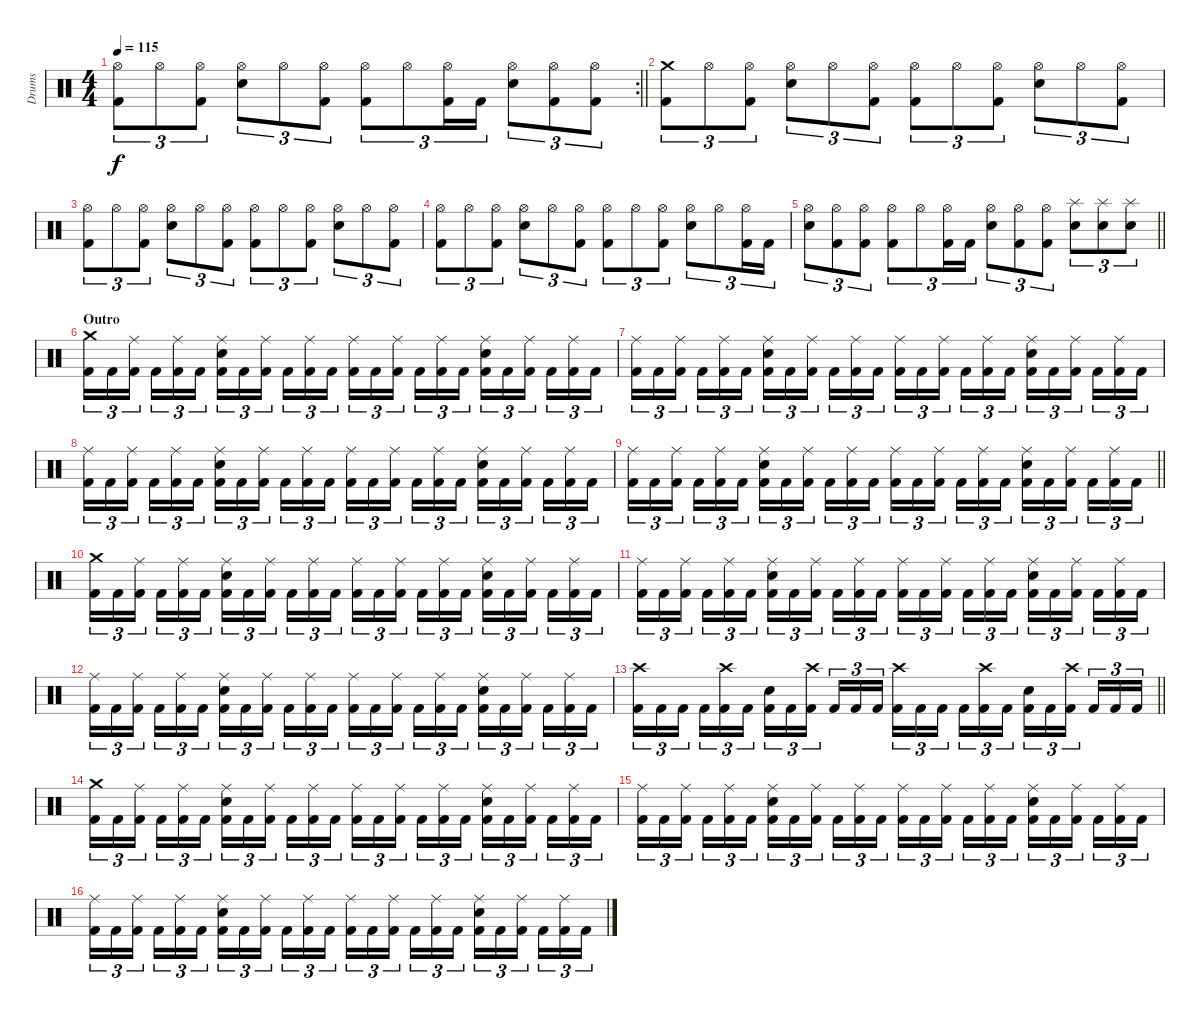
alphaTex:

\track ("Drums" "Drums") {instrument percussion}
\staff {score}
\articulation defaults
\rc 2
\ts (4 4)
\tempo 115
\clef neutral
\barLineRight lightlight
\ks c
("Kick (hit) 2" "Hi-Hat (open)").8{tu (3 2) dy f} "Hi-Hat (open)".8{tu (3 2)} ("Kick (hit) 2" "Hi-Hat (open)").8{tu (3 2)} ("Electric Snare (hit)" "Hi-Hat (open)").8{tu (3 2)} "Hi-Hat (open)".8{tu (3 2)} ("Kick (hit) 2" "Hi-Hat (open)").8{tu (3 2)} ("Kick (hit) 2" "Hi-Hat (open)").8{tu (3 2)} "Hi-Hat (open)".8{tu (3 2)} ("Kick (hit) 2" "Hi-Hat (open)").16{tu (3 2)} "Kick (hit) 2".16{tu (3 2)} ("Electric Snare (hit)" "Hi-Hat (open)").8{tu (3 2)} ("Kick (hit) 2" "Hi-Hat (open)").8{tu (3 2)} ("Kick (hit) 2" "Hi-Hat (open)").8{tu (3 2)} |
("Kick (hit) 2" "Crash medium (hit)").8{tu (3 2)} "Hi-Hat (open)".8{tu (3 2)} ("Kick (hit) 2" "Hi-Hat (open)").8{tu (3 2)} ("Electric Snare (hit)" "Hi-Hat (open)").8{tu (3 2)} "Hi-Hat (open)".8{tu (3 2)} ("Kick (hit) 2" "Hi-Hat (open)").8{tu (3 2)} ("Kick (hit) 2" "Hi-Hat (open)").8{tu (3 2)} "Hi-Hat (open)".8{tu (3 2)} ("Kick (hit) 2" "Hi-Hat (open)").8{tu (3 2)} ("Electric Snare (hit)" "Hi-Hat (open)").8{tu (3 2)} "Hi-Hat (open)".8{tu (3 2)} ("Kick (hit) 2" "Hi-Hat (open)").8{tu (3 2)} |
("Kick (hit) 2" "Hi-Hat (open)").8{tu (3 2)} "Hi-Hat (open)".8{tu (3 2)} ("Kick (hit) 2" "Hi-Hat (open)").8{tu (3 2)} ("Electric Snare (hit)" "Hi-Hat (open)").8{tu (3 2)} "Hi-Hat (open)".8{tu (3 2)} ("Kick (hit) 2" "Hi-Hat (open)").8{tu (3 2)} ("Kick (hit) 2" "Hi-Hat (open)").8{tu (3 2)} "Hi-Hat (open)".8{tu (3 2)} ("Kick (hit) 2" "Hi-Hat (open)").8{tu (3 2)} ("Electric Snare (hit)" "Hi-Hat (open)").8{tu (3 2)} "Hi-Hat (open)".8{tu (3 2)} ("Kick (hit) 2" "Hi-Hat (open)").8{tu (3 2)} |
("Kick (hit) 2" "Hi-Hat (open)").8{tu (3 2)} "Hi-Hat (open)".8{tu (3 2)} ("Kick (hit) 2" "Hi-Hat (open)").8{tu (3 2)} ("Electric Snare (hit)" "Hi-Hat (open)").8{tu (3 2)} "Hi-Hat (open)".8{tu (3 2)} ("Kick (hit) 2" "Hi-Hat (open)").8{tu (3 2)} ("Kick (hit) 2" "Hi-Hat (open)").8{tu (3 2)} "Hi-Hat (open)".8{tu (3 2)} ("Kick (hit) 2" "Hi-Hat (open)").8{tu (3 2)} ("Electric Snare (hit)" "Hi-Hat (open)").8{tu (3 2)} "Hi-Hat (open)".8{tu (3 2)} ("Kick (hit) 2" "Hi-Hat (open)").16{tu (3 2)} "Kick (hit) 2".16{tu (3 2)} |
\barLineRight lightlight
("Electric Snare (hit)" "Hi-Hat (open)").8{tu (3 2)} ("Kick (hit) 2" "Hi-Hat (open)").8{tu (3 2)} ("Kick (hit) 2" "Hi-Hat (open)").8{tu (3 2)} ("Kick (hit) 2" "Hi-Hat (open)").8{tu (3 2)} "Hi-Hat (open)".8{tu (3 2)} ("Kick (hit) 2" "Hi-Hat (open)").16{tu (3 2)} "Kick (hit) 2".16{tu (3 2)} ("Electric Snare (hit)" "Hi-Hat (open)").8{tu (3 2)} ("Kick (hit) 2" "Hi-Hat (open)").8{tu (3 2)} ("Kick (hit) 2" "Hi-Hat (open)").8{tu (3 2)} ("Electric Snare (hit)" "Splash (hit)").8{tu (3 2)} ("Electric Snare (hit)" "Splash (hit)").8{tu (3 2)} ("Electric Snare (hit)" "Splash (hit)").8{tu (3 2)} |
\section ("" "Outro")
("Kick (hit) 2" "Crash medium (hit)").16{tu (3 2)} "Kick (hit) 2".16{tu (3 2)} ("Kick (hit) 2" "Ride (middle)").16{tu (3 2)} "Kick (hit) 2".16{tu (3 2)} ("Kick (hit) 2" "Ride (middle)").16{tu (3 2)} "Kick (hit) 2".16{tu (3 2)} ("Kick (hit) 2" "Electric Snare (hit)" "Ride (middle)").16{tu (3 2)} "Kick (hit) 2".16{tu (3 2)} ("Kick (hit) 2" "Ride (middle)").16{tu (3 2)} "Kick (hit) 2".16{tu (3 2)} ("Kick (hit) 2" "Ride (middle)").16{tu (3 2)} "Kick (hit) 2".16{tu (3 2)} ("Kick (hit) 2" "Ride (middle)").16{tu (3 2)} "Kick (hit) 2".16{tu (3 2)} ("Kick (hit) 2" "Ride (middle)").16{tu (3 2)} "Kick (hit) 2".16{tu (3 2)} ("Kick (hit) 2" "Ride (middle)").16{tu (3 2)} "Kick (hit) 2".16{tu (3 2)} ("Kick (hit) 2" "Electric Snare (hit)" "Ride (middle)").16{tu (3 2)} "Kick (hit) 2".16{tu (3 2)} ("Kick (hit) 2" "Ride (middle)").16{tu (3 2)} "Kick (hit) 2".16{tu (3 2)} ("Kick (hit) 2" "Ride (middle)").16{tu (3 2)} "Kick (hit) 2".16{tu (3 2)} |
("Kick (hit) 2" "Ride (middle)").16{tu (3 2)} "Kick (hit) 2".16{tu (3 2)} ("Kick (hit) 2" "Ride (middle)").16{tu (3 2)} "Kick (hit) 2".16{tu (3 2)} ("Kick (hit) 2" "Ride (middle)").16{tu (3 2)} "Kick (hit) 2".16{tu (3 2)} ("Kick (hit) 2" "Electric Snare (hit)" "Ride (middle)").16{tu (3 2)} "Kick (hit) 2".16{tu (3 2)} ("Kick (hit) 2" "Ride (middle)").16{tu (3 2)} "Kick (hit) 2".16{tu (3 2)} ("Kick (hit) 2" "Ride (middle)").16{tu (3 2)} "Kick (hit) 2".16{tu (3 2)} ("Kick (hit) 2" "Ride (middle)").16{tu (3 2)} "Kick (hit) 2".16{tu (3 2)} ("Kick (hit) 2" "Ride (middle)").16{tu (3 2)} "Kick (hit) 2".16{tu (3 2)} ("Kick (hit) 2" "Ride (middle)").16{tu (3 2)} "Kick (hit) 2".16{tu (3 2)} ("Kick (hit) 2" "Electric Snare (hit)" "Ride (middle)").16{tu (3 2)} "Kick (hit) 2".16{tu (3 2)} ("Kick (hit) 2" "Ride (middle)").16{tu (3 2)} "Kick (hit) 2".16{tu (3 2)} ("Kick (hit) 2" "Ride (middle)").16{tu (3 2)} "Kick (hit) 2".16{tu (3 2)} |
("Kick (hit) 2" "Ride (middle)").16{tu (3 2)} "Kick (hit) 2".16{tu (3 2)} ("Kick (hit) 2" "Ride (middle)").16{tu (3 2)} "Kick (hit) 2".16{tu (3 2)} ("Kick (hit) 2" "Ride (middle)").16{tu (3 2)} "Kick (hit) 2".16{tu (3 2)} ("Kick (hit) 2" "Electric Snare (hit)" "Ride (middle)").16{tu (3 2)} "Kick (hit) 2".16{tu (3 2)} ("Kick (hit) 2" "Ride (middle)").16{tu (3 2)} "Kick (hit) 2".16{tu (3 2)} ("Kick (hit) 2" "Ride (middle)").16{tu (3 2)} "Kick (hit) 2".16{tu (3 2)} ("Kick (hit) 2" "Ride (middle)").16{tu (3 2)} "Kick (hit) 2".16{tu (3 2)} ("Kick (hit) 2" "Ride (middle)").16{tu (3 2)} "Kick (hit) 2".16{tu (3 2)} ("Kick (hit) 2" "Ride (middle)").16{tu (3 2)} "Kick (hit) 2".16{tu (3 2)} ("Kick (hit) 2" "Electric Snare (hit)" "Ride (middle)").16{tu (3 2)} "Kick (hit) 2".16{tu (3 2)} ("Kick (hit) 2" "Ride (middle)").16{tu (3 2)} "Kick (hit) 2".16{tu (3 2)} ("Kick (hit) 2" "Ride (middle)").16{tu (3 2)} "Kick (hit) 2".16{tu (3 2)} |
\barLineRight lightlight
("Kick (hit) 2" "Ride (middle)").16{tu (3 2)} "Kick (hit) 2".16{tu (3 2)} ("Kick (hit) 2" "Ride (middle)").16{tu (3 2)} "Kick (hit) 2".16{tu (3 2)} ("Kick (hit) 2" "Ride (middle)").16{tu (3 2)} "Kick (hit) 2".16{tu (3 2)} ("Kick (hit) 2" "Electric Snare (hit)" "Ride (middle)").16{tu (3 2)} "Kick (hit) 2".16{tu (3 2)} ("Kick (hit) 2" "Ride (middle)").16{tu (3 2)} "Kick (hit) 2".16{tu (3 2)} ("Kick (hit) 2" "Ride (middle)").16{tu (3 2)} "Kick (hit) 2".16{tu (3 2)} ("Kick (hit) 2" "Ride (middle)").16{tu (3 2)} "Kick (hit) 2".16{tu (3 2)} ("Kick (hit) 2" "Ride (middle)").16{tu (3 2)} "Kick (hit) 2".16{tu (3 2)} ("Kick (hit) 2" "Ride (middle)").16{tu (3 2)} "Kick (hit) 2".16{tu (3 2)} ("Kick (hit) 2" "Electric Snare (hit)" "Ride (middle)").16{tu (3 2)} "Kick (hit) 2".16{tu (3 2)} ("Kick (hit) 2" "Ride (middle)").16{tu (3 2)} "Kick (hit) 2".16{tu (3 2)} ("Kick (hit) 2" "Ride (middle)").16{tu (3 2)} "Kick (hit) 2".16{tu (3 2)} |
("Kick (hit) 2" "Crash medium (hit)").16{tu (3 2)} "Kick (hit) 2".16{tu (3 2)} ("Kick (hit) 2" "Ride (middle)").16{tu (3 2)} "Kick (hit) 2".16{tu (3 2)} ("Kick (hit) 2" "Ride (middle)").16{tu (3 2)} "Kick (hit) 2".16{tu (3 2)} ("Kick (hit) 2" "Electric Snare (hit)" "Ride (middle)").16{tu (3 2)} "Kick (hit) 2".16{tu (3 2)} ("Kick (hit) 2" "Ride (middle)").16{tu (3 2)} "Kick (hit) 2".16{tu (3 2)} ("Kick (hit) 2" "Ride (middle)").16{tu (3 2)} "Kick (hit) 2".16{tu (3 2)} ("Kick (hit) 2" "Ride (middle)").16{tu (3 2)} "Kick (hit) 2".16{tu (3 2)} ("Kick (hit) 2" "Ride (middle)").16{tu (3 2)} "Kick (hit) 2".16{tu (3 2)} ("Kick (hit) 2" "Ride (middle)").16{tu (3 2)} "Kick (hit) 2".16{tu (3 2)} ("Kick (hit) 2" "Electric Snare (hit)" "Ride (middle)").16{tu (3 2)} "Kick (hit) 2".16{tu (3 2)} ("Kick (hit) 2" "Ride (middle)").16{tu (3 2)} "Kick (hit) 2".16{tu (3 2)} ("Kick (hit) 2" "Ride (middle)").16{tu (3 2)} "Kick (hit) 2".16{tu (3 2)} |
("Kick (hit) 2" "Ride (middle)").16{tu (3 2)} "Kick (hit) 2".16{tu (3 2)} ("Kick (hit) 2" "Ride (middle)").16{tu (3 2)} "Kick (hit) 2".16{tu (3 2)} ("Kick (hit) 2" "Ride (middle)").16{tu (3 2)} "Kick (hit) 2".16{tu (3 2)} ("Kick (hit) 2" "Electric Snare (hit)" "Ride (middle)").16{tu (3 2)} "Kick (hit) 2".16{tu (3 2)} ("Kick (hit) 2" "Ride (middle)").16{tu (3 2)} "Kick (hit) 2".16{tu (3 2)} ("Kick (hit) 2" "Ride (middle)").16{tu (3 2)} "Kick (hit) 2".16{tu (3 2)} ("Kick (hit) 2" "Ride (middle)").16{tu (3 2)} "Kick (hit) 2".16{tu (3 2)} ("Kick (hit) 2" "Ride (middle)").16{tu (3 2)} "Kick (hit) 2".16{tu (3 2)} ("Kick (hit) 2" "Ride (middle)").16{tu (3 2)} "Kick (hit) 2".16{tu (3 2)} ("Kick (hit) 2" "Electric Snare (hit)" "Ride (middle)").16{tu (3 2)} "Kick (hit) 2".16{tu (3 2)} ("Kick (hit) 2" "Ride (middle)").16{tu (3 2)} "Kick (hit) 2".16{tu (3 2)} ("Kick (hit) 2" "Ride (middle)").16{tu (3 2)} "Kick (hit) 2".16{tu (3 2)} |
("Kick (hit) 2" "Ride (middle)").16{tu (3 2)} "Kick (hit) 2".16{tu (3 2)} ("Kick (hit) 2" "Ride (middle)").16{tu (3 2)} "Kick (hit) 2".16{tu (3 2)} ("Kick (hit) 2" "Ride (middle)").16{tu (3 2)} "Kick (hit) 2".16{tu (3 2)} ("Kick (hit) 2" "Electric Snare (hit)" "Ride (middle)").16{tu (3 2)} "Kick (hit) 2".16{tu (3 2)} ("Kick (hit) 2" "Ride (middle)").16{tu (3 2)} "Kick (hit) 2".16{tu (3 2)} ("Kick (hit) 2" "Ride (middle)").16{tu (3 2)} "Kick (hit) 2".16{tu (3 2)} ("Kick (hit) 2" "Ride (middle)").16{tu (3 2)} "Kick (hit) 2".16{tu (3 2)} ("Kick (hit) 2" "Ride (middle)").16{tu (3 2)} "Kick (hit) 2".16{tu (3 2)} ("Kick (hit) 2" "Ride (middle)").16{tu (3 2)} "Kick (hit) 2".16{tu (3 2)} ("Kick (hit) 2" "Electric Snare (hit)" "Ride (middle)").16{tu (3 2)} "Kick (hit) 2".16{tu (3 2)} ("Kick (hit) 2" "Ride (middle)").16{tu (3 2)} "Kick (hit) 2".16{tu (3 2)} ("Kick (hit) 2" "Ride (middle)").16{tu (3 2)} "Kick (hit) 2".16{tu (3 2)} |
\barLineRight lightlight
("Kick (hit) 2" "Crash high (hit)").16{tu (3 2)} "Kick (hit) 2".16{tu (3 2)} "Kick (hit) 2".16{tu (3 2)} "Kick (hit) 2".16{tu (3 2)} ("Kick (hit) 2" "Crash high (hit)").16{tu (3 2)} "Kick (hit) 2".16{tu (3 2)} ("Kick (hit) 2" "Electric Snare (hit)").16{tu (3 2)} "Kick (hit) 2".16{tu (3 2)} ("Kick (hit) 2" "Crash high (hit)").16{tu (3 2)} "Kick (hit) 2".16{tu (3 2)} "Kick (hit) 2".16{tu (3 2)} "Kick (hit) 2".16{tu (3 2)} ("Kick (hit) 2" "Crash high (hit)").16{tu (3 2)} "Kick (hit) 2".16{tu (3 2)} "Kick (hit) 2".16{tu (3 2)} "Kick (hit) 2".16{tu (3 2)} ("Kick (hit) 2" "Crash high (hit)").16{tu (3 2)} "Kick (hit) 2".16{tu (3 2)} ("Kick (hit) 2" "Electric Snare (hit)").16{tu (3 2)} "Kick (hit) 2".16{tu (3 2)} ("Kick (hit) 2" "Crash high (hit)").16{tu (3 2)} "Kick (hit) 2".16{tu (3 2)} "Kick (hit) 2".16{tu (3 2)} "Kick (hit) 2".16{tu (3 2)} |
("Kick (hit) 2" "Crash medium (hit)").16{tu (3 2)} "Kick (hit) 2".16{tu (3 2)} ("Kick (hit) 2" "Ride (middle)").16{tu (3 2)} "Kick (hit) 2".16{tu (3 2)} ("Kick (hit) 2" "Ride (middle)").16{tu (3 2)} "Kick (hit) 2".16{tu (3 2)} ("Kick (hit) 2" "Electric Snare (hit)" "Ride (middle)").16{tu (3 2)} "Kick (hit) 2".16{tu (3 2)} ("Kick (hit) 2" "Ride (middle)").16{tu (3 2)} "Kick (hit) 2".16{tu (3 2)} ("Kick (hit) 2" "Ride (middle)").16{tu (3 2)} "Kick (hit) 2".16{tu (3 2)} ("Kick (hit) 2" "Ride (middle)").16{tu (3 2)} "Kick (hit) 2".16{tu (3 2)} ("Kick (hit) 2" "Ride (middle)").16{tu (3 2)} "Kick (hit) 2".16{tu (3 2)} ("Kick (hit) 2" "Ride (middle)").16{tu (3 2)} "Kick (hit) 2".16{tu (3 2)} ("Kick (hit) 2" "Electric Snare (hit)" "Ride (middle)").16{tu (3 2)} "Kick (hit) 2".16{tu (3 2)} ("Kick (hit) 2" "Ride (middle)").16{tu (3 2)} "Kick (hit) 2".16{tu (3 2)} ("Kick (hit) 2" "Ride (middle)").16{tu (3 2)} "Kick (hit) 2".16{tu (3 2)} |
("Kick (hit) 2" "Ride (middle)").16{tu (3 2)} "Kick (hit) 2".16{tu (3 2)} ("Kick (hit) 2" "Ride (middle)").16{tu (3 2)} "Kick (hit) 2".16{tu (3 2)} ("Kick (hit) 2" "Ride (middle)").16{tu (3 2)} "Kick (hit) 2".16{tu (3 2)} ("Kick (hit) 2" "Electric Snare (hit)" "Ride (middle)").16{tu (3 2)} "Kick (hit) 2".16{tu (3 2)} ("Kick (hit) 2" "Ride (middle)").16{tu (3 2)} "Kick (hit) 2".16{tu (3 2)} ("Kick (hit) 2" "Ride (middle)").16{tu (3 2)} "Kick (hit) 2".16{tu (3 2)} ("Kick (hit) 2" "Ride (middle)").16{tu (3 2)} "Kick (hit) 2".16{tu (3 2)} ("Kick (hit) 2" "Ride (middle)").16{tu (3 2)} "Kick (hit) 2".16{tu (3 2)} ("Kick (hit) 2" "Ride (middle)").16{tu (3 2)} "Kick (hit) 2".16{tu (3 2)} ("Kick (hit) 2" "Electric Snare (hit)" "Ride (middle)").16{tu (3 2)} "Kick (hit) 2".16{tu (3 2)} ("Kick (hit) 2" "Ride (middle)").16{tu (3 2)} "Kick (hit) 2".16{tu (3 2)} ("Kick (hit) 2" "Ride (middle)").16{tu (3 2)} "Kick (hit) 2".16{tu (3 2)} |
("Kick (hit) 2" "Ride (middle)").16{tu (3 2)} "Kick (hit) 2".16{tu (3 2)} ("Kick (hit) 2" "Ride (middle)").16{tu (3 2)} "Kick (hit) 2".16{tu (3 2)} ("Kick (hit) 2" "Ride (middle)").16{tu (3 2)} "Kick (hit) 2".16{tu (3 2)} ("Kick (hit) 2" "Electric Snare (hit)" "Ride (middle)").16{tu (3 2)} "Kick (hit) 2".16{tu (3 2)} ("Kick (hit) 2" "Ride (middle)").16{tu (3 2)} "Kick (hit) 2".16{tu (3 2)} ("Kick (hit) 2" "Ride (middle)").16{tu (3 2)} "Kick (hit) 2".16{tu (3 2)} ("Kick (hit) 2" "Ride (middle)").16{tu (3 2)} "Kick (hit) 2".16{tu (3 2)} ("Kick (hit) 2" "Ride (middle)").16{tu (3 2)} "Kick (hit) 2".16{tu (3 2)} ("Kick (hit) 2" "Ride (middle)").16{tu (3 2)} "Kick (hit) 2".16{tu (3 2)} ("Kick (hit) 2" "Electric Snare (hit)" "Ride (middle)").16{tu (3 2)} "Kick (hit) 2".16{tu (3 2)} ("Kick (hit) 2" "Ride (middle)").16{tu (3 2)} "Kick (hit) 2".16{tu (3 2)} ("Kick (hit) 2" "Ride (middle)").16{tu (3 2)} "Kick (hit) 2".16{tu (3 2)}
